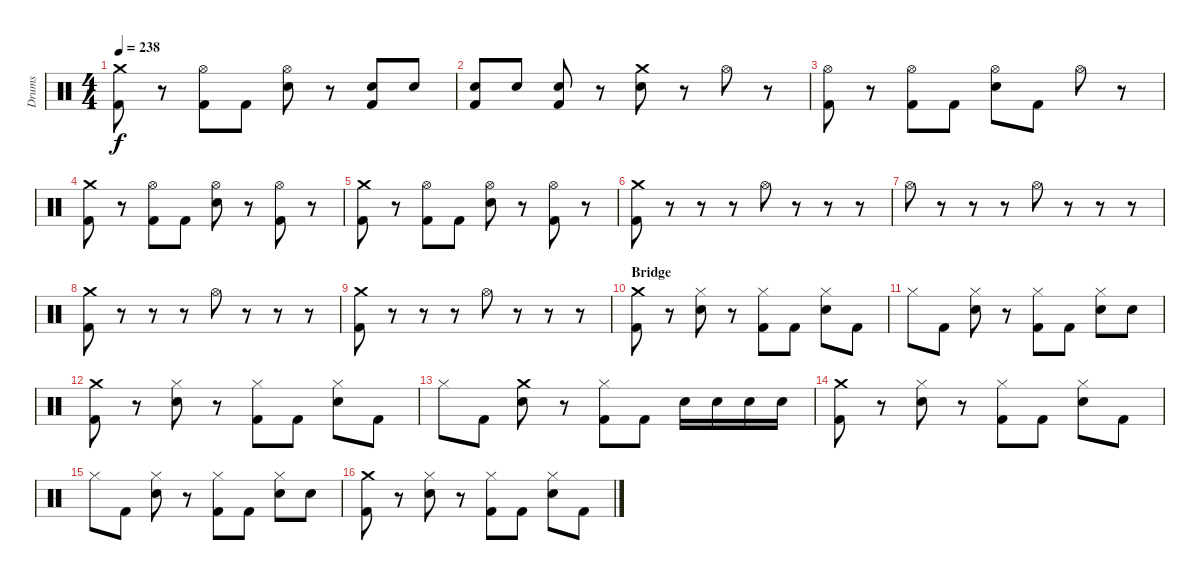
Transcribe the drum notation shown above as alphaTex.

\track ("Drums" "Drums") {instrument percussion}
\staff {score}
\articulation defaults
\ts (4 4)
\tempo 238
\clef neutral
\ks c
("Crash medium (hit)" "Kick (hit) 2").8{dy f} r.8 ("Hi-Hat (open)" "Kick (hit) 2").8 "Kick (hit) 2".8 ("Hi-Hat (open)" "Electric Snare (hit)").8 r.8 ("Electric Snare (hit)" "Kick (hit) 2").8 "Electric Snare (hit)".8 |
("Electric Snare (hit)" "Kick (hit) 2").8 "Electric Snare (hit)".8 ("Electric Snare (hit)" "Kick (hit) 2").8 r.8 ("Crash medium (hit)" "Electric Snare (hit)").8 r.8 "Hi-Hat (open)".8 r.8 |
("Hi-Hat (open)" "Kick (hit) 2").8 r.8 ("Hi-Hat (open)" "Kick (hit) 2").8 "Kick (hit) 2".8 ("Hi-Hat (open)" "Electric Snare (hit)").8 "Kick (hit) 2".8 "Hi-Hat (open)".8 r.8 |
("Crash medium (hit)" "Kick (hit) 2").8 r.8 ("Hi-Hat (open)" "Kick (hit) 2").8 "Kick (hit) 2".8 ("Hi-Hat (open)" "Electric Snare (hit)").8 r.8 ("Hi-Hat (open)" "Kick (hit) 2").8 r.8 |
("Crash medium (hit)" "Kick (hit) 2").8 r.8 ("Hi-Hat (open)" "Kick (hit) 2").8 "Kick (hit) 2".8 ("Hi-Hat (open)" "Electric Snare (hit)").8 r.8 ("Hi-Hat (open)" "Kick (hit) 2").8 r.8 |
("Crash medium (hit)" "Kick (hit) 2").8 r.8 r.8 r.8 "Hi-Hat (open)".8 r.8 r.8 r.8 |
"Hi-Hat (open)".8 r.8 r.8 r.8 "Hi-Hat (open)".8 r.8 r.8 r.8 |
("Crash medium (hit)" "Kick (hit) 2").8 r.8 r.8 r.8 "Hi-Hat (open)".8 r.8 r.8 r.8 |
("Crash medium (hit)" "Kick (hit) 2").8 r.8 r.8 r.8 "Hi-Hat (open)".8 r.8 r.8 r.8 |
\section ("" "Bridge")
("Crash medium (hit)" "Kick (hit) 2").8 r.8 ("Hi-Hat (closed)" "Electric Snare (hit)").8 r.8 ("Hi-Hat (closed)" "Kick (hit) 2").8 "Kick (hit) 2".8 ("Hi-Hat (closed)" "Electric Snare (hit)").8 "Kick (hit) 2".8 |
"Hi-Hat (closed)".8 "Kick (hit) 2".8 ("Hi-Hat (closed)" "Electric Snare (hit)").8 r.8 ("Hi-Hat (closed)" "Kick (hit) 2").8 "Kick (hit) 2".8 ("Hi-Hat (closed)" "Electric Snare (hit)").8 "Electric Snare (hit)".8 |
("Crash medium (hit)" "Kick (hit) 2").8 r.8 ("Hi-Hat (closed)" "Electric Snare (hit)").8 r.8 ("Hi-Hat (closed)" "Kick (hit) 2").8 "Kick (hit) 2".8 ("Hi-Hat (closed)" "Electric Snare (hit)").8 "Kick (hit) 2".8 |
"Hi-Hat (closed)".8 "Kick (hit) 2".8 ("Crash medium (hit)" "Electric Snare (hit)").8 r.8 ("Hi-Hat (closed)" "Kick (hit) 2").8 "Kick (hit) 2".8 "Electric Snare (hit)".16 "Electric Snare (hit)".16 "Electric Snare (hit)".16 "Electric Snare (hit)".16 |
("Crash medium (hit)" "Kick (hit) 2").8 r.8 ("Hi-Hat (closed)" "Electric Snare (hit)").8 r.8 ("Hi-Hat (closed)" "Kick (hit) 2").8 "Kick (hit) 2".8 ("Hi-Hat (closed)" "Electric Snare (hit)").8 "Kick (hit) 2".8 |
"Hi-Hat (closed)".8 "Kick (hit) 2".8 ("Hi-Hat (closed)" "Electric Snare (hit)").8 r.8 ("Hi-Hat (closed)" "Kick (hit) 2").8 "Kick (hit) 2".8 ("Hi-Hat (closed)" "Electric Snare (hit)").8 "Electric Snare (hit)".8 |
("Crash medium (hit)" "Kick (hit) 2").8 r.8 ("Hi-Hat (closed)" "Electric Snare (hit)").8 r.8 ("Hi-Hat (closed)" "Kick (hit) 2").8 "Kick (hit) 2".8 ("Hi-Hat (closed)" "Electric Snare (hit)").8 "Kick (hit) 2".8
